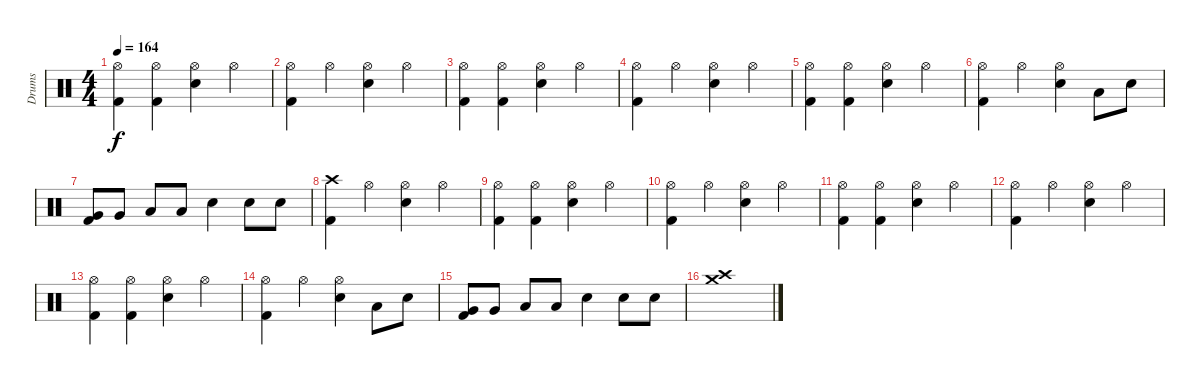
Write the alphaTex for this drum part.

\track ("Drums" "Drums") {instrument percussion}
\staff {score}
\articulation defaults
\ts (4 4)
\tempo 164
\clef neutral
\ks c
("Hi-Hat (open)" "Kick (hit) 2").4{dy f} ("Hi-Hat (open)" "Kick (hit) 2").4 ("Hi-Hat (open)" "Snare (hit) 2").4 "Hi-Hat (open)".4 |
("Hi-Hat (open)" "Kick (hit) 2").4 "Hi-Hat (open)".4 ("Hi-Hat (open)" "Snare (hit) 2").4 "Hi-Hat (open)".4 |
("Hi-Hat (open)" "Kick (hit) 2").4 ("Hi-Hat (open)" "Kick (hit) 2").4 ("Hi-Hat (open)" "Snare (hit) 2").4 "Hi-Hat (open)".4 |
("Hi-Hat (open)" "Kick (hit) 2").4 "Hi-Hat (open)".4 ("Hi-Hat (open)" "Snare (hit) 2").4 "Hi-Hat (open)".4 |
("Hi-Hat (open)" "Kick (hit) 2").4 ("Hi-Hat (open)" "Kick (hit) 2").4 ("Hi-Hat (open)" "Snare (hit) 2").4 "Hi-Hat (open)".4 |
("Hi-Hat (open)" "Kick (hit) 2").4 "Hi-Hat (open)".4 ("Hi-Hat (open)" "Snare (hit) 2").4 "Low Tom (hit)".8 "Snare (hit) 2".8 |
("Kick (hit) 2" "Very Low Tom (hit)").8 "Very Low Tom (hit)".8 "Low Floor Tom (hit)".8 "Low Floor Tom (hit)".8 "Snare (hit) 2".4 "Snare (hit) 2".8 "Snare (hit) 2".8 |
("Crash high (hit)" "Kick (hit) 2").4 "Hi-Hat (open)".4 ("Hi-Hat (open)" "Snare (hit) 2").4 "Hi-Hat (open)".4 |
("Hi-Hat (open)" "Kick (hit) 2").4 ("Hi-Hat (open)" "Kick (hit) 2").4 ("Hi-Hat (open)" "Snare (hit) 2").4 "Hi-Hat (open)".4 |
("Hi-Hat (open)" "Kick (hit) 2").4 "Hi-Hat (open)".4 ("Hi-Hat (open)" "Snare (hit) 2").4 "Hi-Hat (open)".4 |
("Hi-Hat (open)" "Kick (hit) 2").4 ("Hi-Hat (open)" "Kick (hit) 2").4 ("Hi-Hat (open)" "Snare (hit) 2").4 "Hi-Hat (open)".4 |
("Hi-Hat (open)" "Kick (hit) 2").4 "Hi-Hat (open)".4 ("Hi-Hat (open)" "Snare (hit) 2").4 "Hi-Hat (open)".4 |
("Hi-Hat (open)" "Kick (hit) 2").4 ("Hi-Hat (open)" "Kick (hit) 2").4 ("Hi-Hat (open)" "Snare (hit) 2").4 "Hi-Hat (open)".4 |
("Hi-Hat (open)" "Kick (hit) 2").4 "Hi-Hat (open)".4 ("Hi-Hat (open)" "Snare (hit) 2").4 "Low Tom (hit)".8 "Snare (hit) 2".8 |
("Kick (hit) 2" "Very Low Tom (hit)").8 "Very Low Tom (hit)".8 "Low Floor Tom (hit)".8 "Low Floor Tom (hit)".8 "Snare (hit) 2".4 "Snare (hit) 2".8 "Snare (hit) 2".8 |
("Crash high (hit)" "Crash medium (hit)").1
